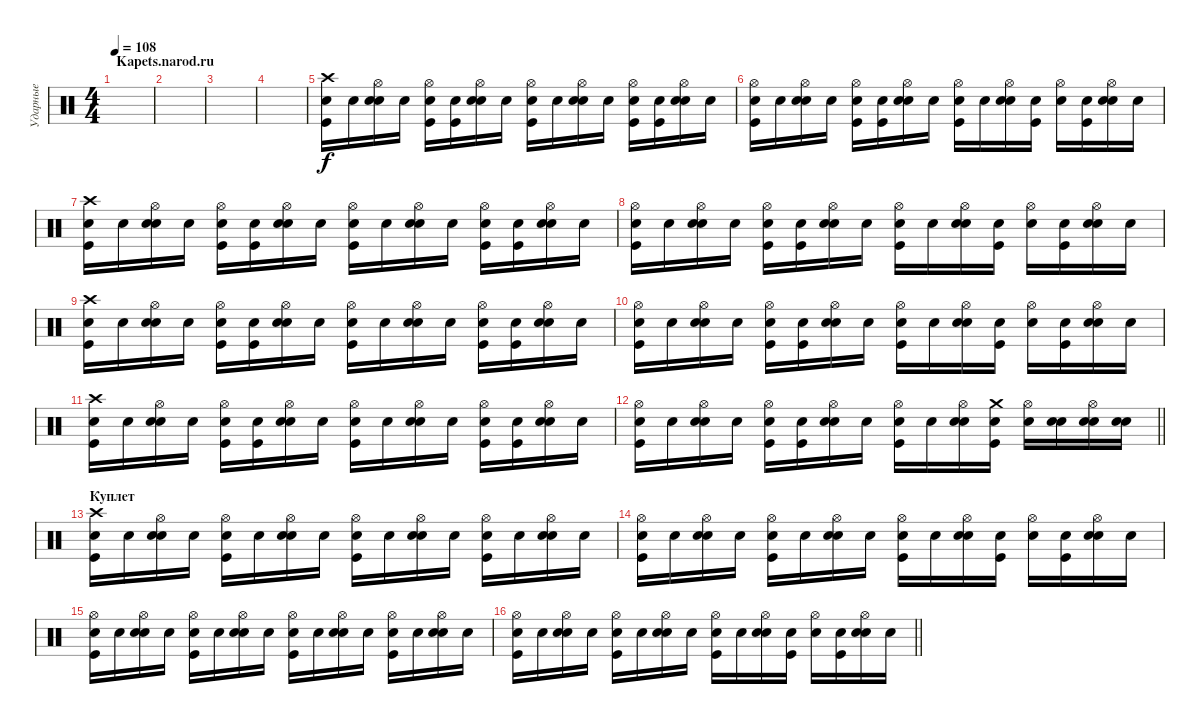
\track ("Ударные" "Ударные") {instrument percussion}
\staff {score}
\articulation defaults
\ts (4 4)
\section ("" "Kapets.narod.ru")
\tempo 108
\clef neutral
\ks c
|
|
|
|
("Crash high (hit)" "Kick (hit)" "Snare (hit)"{x}).16 "Snare (hit)"{x}.16 ("Snare (hit) 2" "Hi-Hat (open)" "Snare (hit)"{x}).16 "Snare (hit)"{x}.16 ("Kick (hit)" "Hi-Hat (open)" "Snare (hit)"{x}).16 ("Kick (hit)" "Snare (hit)"{x}).16 ("Snare (hit) 2" "Hi-Hat (open)" "Snare (hit)"{x}).16 "Snare (hit)"{x}.16 ("Kick (hit)" "Hi-Hat (open)" "Snare (hit)"{x}).16 "Snare (hit)"{x}.16 ("Snare (hit) 2" "Hi-Hat (open)" "Snare (hit)"{x}).16 "Snare (hit)"{x}.16 ("Kick (hit)" "Hi-Hat (open)" "Snare (hit)"{x}).16 ("Kick (hit)" "Snare (hit)"{x}).16 ("Snare (hit) 2" "Hi-Hat (open)" "Snare (hit)"{x}).16 "Snare (hit)"{x}.16 |
("Hi-Hat (open)" "Kick (hit)" "Snare (hit)"{x}).16 "Snare (hit)"{x}.16 ("Snare (hit) 2" "Hi-Hat (open)" "Snare (hit)"{x}).16 "Snare (hit)"{x}.16 ("Kick (hit)" "Hi-Hat (open)" "Snare (hit)"{x}).16 ("Kick (hit)" "Snare (hit)"{x}).16 ("Snare (hit) 2" "Hi-Hat (open)" "Snare (hit)"{x}).16 "Snare (hit)"{x}.16 ("Kick (hit)" "Hi-Hat (open)" "Snare (hit)"{x}).16 "Snare (hit)"{x}.16 ("Snare (hit) 2" "Hi-Hat (open)" "Snare (hit)"{x}).16 ("Kick (hit)" "Snare (hit)"{x}).16 ("Hi-Hat (open)" "Snare (hit)"{x}).16 ("Kick (hit)" "Snare (hit)"{x}).16 ("Snare (hit) 2" "Hi-Hat (open)" "Snare (hit)"{x}).16 "Snare (hit)"{x}.16 |
("Crash high (hit)" "Kick (hit)" "Snare (hit)"{x}).16 "Snare (hit)"{x}.16 ("Snare (hit) 2" "Hi-Hat (open)" "Snare (hit)"{x}).16 "Snare (hit)"{x}.16 ("Kick (hit)" "Hi-Hat (open)" "Snare (hit)"{x}).16 ("Kick (hit)" "Snare (hit)"{x}).16 ("Snare (hit) 2" "Hi-Hat (open)" "Snare (hit)"{x}).16 "Snare (hit)"{x}.16 ("Kick (hit)" "Hi-Hat (open)" "Snare (hit)"{x}).16 "Snare (hit)"{x}.16 ("Snare (hit) 2" "Hi-Hat (open)" "Snare (hit)"{x}).16 "Snare (hit)"{x}.16 ("Kick (hit)" "Hi-Hat (open)" "Snare (hit)"{x}).16 ("Kick (hit)" "Snare (hit)"{x}).16 ("Snare (hit) 2" "Hi-Hat (open)" "Snare (hit)"{x}).16 "Snare (hit)"{x}.16 |
("Hi-Hat (open)" "Kick (hit)" "Snare (hit)"{x}).16 "Snare (hit)"{x}.16 ("Snare (hit) 2" "Hi-Hat (open)" "Snare (hit)"{x}).16 "Snare (hit)"{x}.16 ("Kick (hit)" "Hi-Hat (open)" "Snare (hit)"{x}).16 ("Kick (hit)" "Snare (hit)"{x}).16 ("Snare (hit) 2" "Hi-Hat (open)" "Snare (hit)"{x}).16 "Snare (hit)"{x}.16 ("Kick (hit)" "Hi-Hat (open)" "Snare (hit)"{x}).16 "Snare (hit)"{x}.16 ("Snare (hit) 2" "Hi-Hat (open)" "Snare (hit)"{x}).16 ("Kick (hit)" "Snare (hit)"{x}).16 ("Hi-Hat (open)" "Snare (hit)"{x}).16 ("Kick (hit)" "Snare (hit)"{x}).16 ("Snare (hit) 2" "Hi-Hat (open)" "Snare (hit)"{x}).16 "Snare (hit)"{x}.16 |
("Crash high (hit)" "Kick (hit)" "Snare (hit)"{x}).16 "Snare (hit)"{x}.16 ("Snare (hit) 2" "Hi-Hat (open)" "Snare (hit)"{x}).16 "Snare (hit)"{x}.16 ("Kick (hit)" "Hi-Hat (open)" "Snare (hit)"{x}).16 ("Kick (hit)" "Snare (hit)"{x}).16 ("Snare (hit) 2" "Hi-Hat (open)" "Snare (hit)"{x}).16 "Snare (hit)"{x}.16 ("Kick (hit)" "Hi-Hat (open)" "Snare (hit)"{x}).16 "Snare (hit)"{x}.16 ("Snare (hit) 2" "Hi-Hat (open)" "Snare (hit)"{x}).16 "Snare (hit)"{x}.16 ("Kick (hit)" "Hi-Hat (open)" "Snare (hit)"{x}).16 ("Kick (hit)" "Snare (hit)"{x}).16 ("Snare (hit) 2" "Hi-Hat (open)" "Snare (hit)"{x}).16 "Snare (hit)"{x}.16 |
("Hi-Hat (open)" "Kick (hit)" "Snare (hit)"{x}).16 "Snare (hit)"{x}.16 ("Snare (hit) 2" "Hi-Hat (open)" "Snare (hit)"{x}).16 "Snare (hit)"{x}.16 ("Kick (hit)" "Hi-Hat (open)" "Snare (hit)"{x}).16 ("Kick (hit)" "Snare (hit)"{x}).16 ("Snare (hit) 2" "Hi-Hat (open)" "Snare (hit)"{x}).16 "Snare (hit)"{x}.16 ("Kick (hit)" "Hi-Hat (open)" "Snare (hit)"{x}).16 "Snare (hit)"{x}.16 ("Snare (hit) 2" "Hi-Hat (open)" "Snare (hit)"{x}).16 ("Kick (hit)" "Snare (hit)"{x}).16 ("Hi-Hat (open)" "Snare (hit)"{x}).16 ("Kick (hit)" "Snare (hit)"{x}).16 ("Snare (hit) 2" "Hi-Hat (open)" "Snare (hit)"{x}).16 "Snare (hit)"{x}.16 |
("Crash high (hit)" "Kick (hit)" "Snare (hit)"{x}).16 "Snare (hit)"{x}.16 ("Snare (hit) 2" "Hi-Hat (open)" "Snare (hit)"{x}).16 "Snare (hit)"{x}.16 ("Kick (hit)" "Hi-Hat (open)" "Snare (hit)"{x}).16 ("Kick (hit)" "Snare (hit)"{x}).16 ("Snare (hit) 2" "Hi-Hat (open)" "Snare (hit)"{x}).16 "Snare (hit)"{x}.16 ("Kick (hit)" "Hi-Hat (open)" "Snare (hit)"{x}).16 "Snare (hit)"{x}.16 ("Snare (hit) 2" "Hi-Hat (open)" "Snare (hit)"{x}).16 "Snare (hit)"{x}.16 ("Kick (hit)" "Hi-Hat (open)" "Snare (hit)"{x}).16 ("Kick (hit)" "Snare (hit)"{x}).16 ("Snare (hit) 2" "Hi-Hat (open)" "Snare (hit)"{x}).16 "Snare (hit)"{x}.16 |
\barLineRight lightlight
("Hi-Hat (open)" "Kick (hit)" "Snare (hit)"{x}).16 "Snare (hit)"{x}.16 ("Snare (hit) 2" "Hi-Hat (open)" "Snare (hit)"{x}).16 "Snare (hit)"{x}.16 ("Kick (hit)" "Hi-Hat (open)" "Snare (hit)"{x}).16 ("Kick (hit)" "Snare (hit)"{x}).16 ("Snare (hit) 2" "Hi-Hat (open)" "Snare (hit)"{x}).16 "Snare (hit)"{x}.16 ("Kick (hit)" "Hi-Hat (open)" "Snare (hit)"{x}).16 "Snare (hit)"{x}.16 ("Snare (hit) 2" "Hi-Hat (open)" "Snare (hit)"{x}).16 ("Kick (hit)" "Crash medium (hit)" "Snare (hit)"{x}).16 ("Hi-Hat (open)" "Snare (hit)"{x}).16 ("Snare (hit) 2" "Snare (hit)"{x}).16 ("Snare (hit) 2" "Hi-Hat (open)" "Snare (hit)"{x}).16 ("Snare (hit) 2" "Snare (hit)"{x}).16 |
\section ("" "Куплет")
("Crash high (hit)" "Kick (hit)" "Snare (hit)"{x}).16 "Snare (hit)"{x}.16 ("Snare (hit) 2" "Hi-Hat (open)" "Snare (hit)"{x}).16 "Snare (hit)"{x}.16 ("Kick (hit)" "Hi-Hat (open)" "Snare (hit)"{x}).16 "Snare (hit)"{x}.16 ("Snare (hit) 2" "Hi-Hat (open)" "Snare (hit)"{x}).16 "Snare (hit)"{x}.16 ("Kick (hit)" "Hi-Hat (open)" "Snare (hit)"{x}).16 "Snare (hit)"{x}.16 ("Snare (hit) 2" "Hi-Hat (open)" "Snare (hit)"{x}).16 "Snare (hit)"{x}.16 ("Kick (hit)" "Hi-Hat (open)" "Snare (hit)"{x}).16 "Snare (hit)"{x}.16 ("Snare (hit) 2" "Hi-Hat (open)" "Snare (hit)"{x}).16 "Snare (hit)"{x}.16 |
("Hi-Hat (open)" "Kick (hit)" "Snare (hit)"{x}).16 "Snare (hit)"{x}.16 ("Snare (hit) 2" "Hi-Hat (open)" "Snare (hit)"{x}).16 "Snare (hit)"{x}.16 ("Kick (hit)" "Hi-Hat (open)" "Snare (hit)"{x}).16 "Snare (hit)"{x}.16 ("Snare (hit) 2" "Hi-Hat (open)" "Snare (hit)"{x}).16 "Snare (hit)"{x}.16 ("Kick (hit)" "Hi-Hat (open)" "Snare (hit)"{x}).16 "Snare (hit)"{x}.16 ("Snare (hit) 2" "Hi-Hat (open)" "Snare (hit)"{x}).16 ("Kick (hit)" "Snare (hit)"{x}).16 ("Hi-Hat (open)" "Snare (hit)"{x}).16 ("Kick (hit)" "Snare (hit)"{x}).16 ("Snare (hit) 2" "Hi-Hat (open)" "Snare (hit)"{x}).16 "Snare (hit)"{x}.16 |
("Hi-Hat (open)" "Kick (hit)" "Snare (hit)"{x}).16 "Snare (hit)"{x}.16 ("Snare (hit) 2" "Hi-Hat (open)" "Snare (hit)"{x}).16 "Snare (hit)"{x}.16 ("Kick (hit)" "Hi-Hat (open)" "Snare (hit)"{x}).16 "Snare (hit)"{x}.16 ("Snare (hit) 2" "Hi-Hat (open)" "Snare (hit)"{x}).16 "Snare (hit)"{x}.16 ("Kick (hit)" "Hi-Hat (open)" "Snare (hit)"{x}).16 "Snare (hit)"{x}.16 ("Snare (hit) 2" "Hi-Hat (open)" "Snare (hit)"{x}).16 "Snare (hit)"{x}.16 ("Kick (hit)" "Hi-Hat (open)" "Snare (hit)"{x}).16 "Snare (hit)"{x}.16 ("Snare (hit) 2" "Hi-Hat (open)" "Snare (hit)"{x}).16 "Snare (hit)"{x}.16 |
\barLineRight lightlight
("Hi-Hat (open)" "Kick (hit)" "Snare (hit)"{x}).16 "Snare (hit)"{x}.16 ("Snare (hit) 2" "Hi-Hat (open)" "Snare (hit)"{x}).16 "Snare (hit)"{x}.16 ("Kick (hit)" "Hi-Hat (open)" "Snare (hit)"{x}).16 "Snare (hit)"{x}.16 ("Snare (hit) 2" "Hi-Hat (open)" "Snare (hit)"{x}).16 "Snare (hit)"{x}.16 ("Kick (hit)" "Hi-Hat (open)" "Snare (hit)"{x}).16 "Snare (hit)"{x}.16 ("Snare (hit) 2" "Hi-Hat (open)" "Snare (hit)"{x}).16 ("Kick (hit)" "Snare (hit)"{x}).16 ("Hi-Hat (open)" "Snare (hit)"{x}).16 ("Kick (hit)" "Snare (hit)"{x}).16 ("Snare (hit) 2" "Hi-Hat (open)" "Snare (hit)"{x}).16 "Snare (hit)"{x}.16
